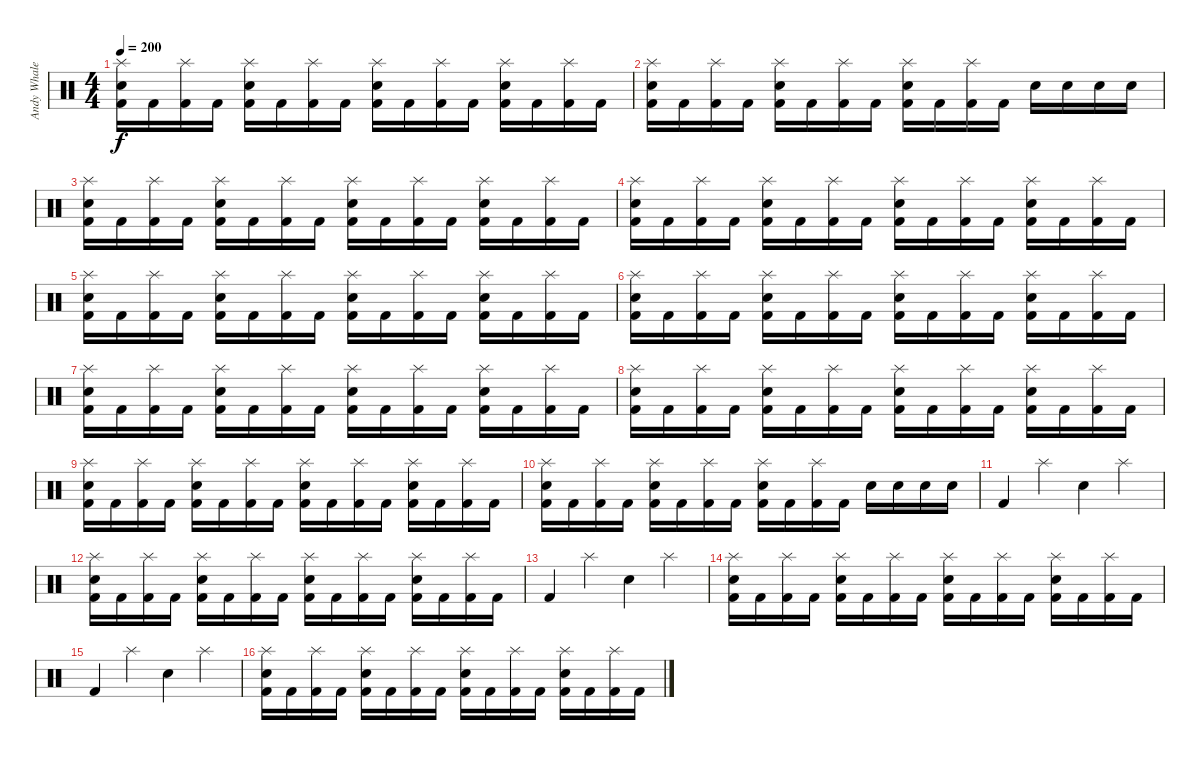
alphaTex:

\track ("Andy Whale" "Andy Whale") {instrument percussion}
\staff {score}
\articulation defaults
\ts (4 4)
\tempo 200
\clef neutral
\ks c
("Splash (hit)" "Electric Snare (hit)" "Kick (hit) 2").16{dy f} "Kick (hit) 2".16 ("Splash (hit)" "Kick (hit) 2").16 "Kick (hit) 2".16 ("Splash (hit)" "Electric Snare (hit)" "Kick (hit) 2").16 "Kick (hit) 2".16 ("Splash (hit)" "Kick (hit) 2").16 "Kick (hit) 2".16 ("Splash (hit)" "Electric Snare (hit)" "Kick (hit) 2").16 "Kick (hit) 2".16 ("Splash (hit)" "Kick (hit) 2").16 "Kick (hit) 2".16 ("Splash (hit)" "Electric Snare (hit)" "Kick (hit) 2").16 "Kick (hit) 2".16 ("Splash (hit)" "Kick (hit) 2").16 "Kick (hit) 2".16 |
("Splash (hit)" "Electric Snare (hit)" "Kick (hit) 2").16 "Kick (hit) 2".16 ("Splash (hit)" "Kick (hit) 2").16 "Kick (hit) 2".16 ("Splash (hit)" "Electric Snare (hit)" "Kick (hit) 2").16 "Kick (hit) 2".16 ("Splash (hit)" "Kick (hit) 2").16 "Kick (hit) 2".16 ("Splash (hit)" "Electric Snare (hit)" "Kick (hit) 2").16 "Kick (hit) 2".16 ("Splash (hit)" "Kick (hit) 2").16 "Kick (hit) 2".16 "Electric Snare (hit)".16 "Electric Snare (hit)".16 "Electric Snare (hit)".16 "Electric Snare (hit)".16 |
("Splash (hit)" "Electric Snare (hit)" "Kick (hit) 2").16 "Kick (hit) 2".16 ("Splash (hit)" "Kick (hit) 2").16 "Kick (hit) 2".16 ("Splash (hit)" "Electric Snare (hit)" "Kick (hit) 2").16 "Kick (hit) 2".16 ("Splash (hit)" "Kick (hit) 2").16 "Kick (hit) 2".16 ("Splash (hit)" "Electric Snare (hit)" "Kick (hit) 2").16 "Kick (hit) 2".16 ("Splash (hit)" "Kick (hit) 2").16 "Kick (hit) 2".16 ("Splash (hit)" "Electric Snare (hit)" "Kick (hit) 2").16 "Kick (hit) 2".16 ("Splash (hit)" "Kick (hit) 2").16 "Kick (hit) 2".16 |
("Splash (hit)" "Electric Snare (hit)" "Kick (hit) 2").16 "Kick (hit) 2".16 ("Splash (hit)" "Kick (hit) 2").16 "Kick (hit) 2".16 ("Splash (hit)" "Electric Snare (hit)" "Kick (hit) 2").16 "Kick (hit) 2".16 ("Splash (hit)" "Kick (hit) 2").16 "Kick (hit) 2".16 ("Splash (hit)" "Electric Snare (hit)" "Kick (hit) 2").16 "Kick (hit) 2".16 ("Splash (hit)" "Kick (hit) 2").16 "Kick (hit) 2".16 ("Splash (hit)" "Electric Snare (hit)" "Kick (hit) 2").16 "Kick (hit) 2".16 ("Splash (hit)" "Kick (hit) 2").16 "Kick (hit) 2".16 |
("Splash (hit)" "Electric Snare (hit)" "Kick (hit) 2").16 "Kick (hit) 2".16 ("Splash (hit)" "Kick (hit) 2").16 "Kick (hit) 2".16 ("Splash (hit)" "Electric Snare (hit)" "Kick (hit) 2").16 "Kick (hit) 2".16 ("Splash (hit)" "Kick (hit) 2").16 "Kick (hit) 2".16 ("Splash (hit)" "Electric Snare (hit)" "Kick (hit) 2").16 "Kick (hit) 2".16 ("Splash (hit)" "Kick (hit) 2").16 "Kick (hit) 2".16 ("Splash (hit)" "Electric Snare (hit)" "Kick (hit) 2").16 "Kick (hit) 2".16 ("Splash (hit)" "Kick (hit) 2").16 "Kick (hit) 2".16 |
("Splash (hit)" "Electric Snare (hit)" "Kick (hit) 2").16 "Kick (hit) 2".16 ("Splash (hit)" "Kick (hit) 2").16 "Kick (hit) 2".16 ("Splash (hit)" "Electric Snare (hit)" "Kick (hit) 2").16 "Kick (hit) 2".16 ("Splash (hit)" "Kick (hit) 2").16 "Kick (hit) 2".16 ("Splash (hit)" "Electric Snare (hit)" "Kick (hit) 2").16 "Kick (hit) 2".16 ("Splash (hit)" "Kick (hit) 2").16 "Kick (hit) 2".16 ("Splash (hit)" "Electric Snare (hit)" "Kick (hit) 2").16 "Kick (hit) 2".16 ("Splash (hit)" "Kick (hit) 2").16 "Kick (hit) 2".16 |
("Splash (hit)" "Electric Snare (hit)" "Kick (hit) 2").16 "Kick (hit) 2".16 ("Splash (hit)" "Kick (hit) 2").16 "Kick (hit) 2".16 ("Splash (hit)" "Electric Snare (hit)" "Kick (hit) 2").16 "Kick (hit) 2".16 ("Splash (hit)" "Kick (hit) 2").16 "Kick (hit) 2".16 ("Splash (hit)" "Electric Snare (hit)" "Kick (hit) 2").16 "Kick (hit) 2".16 ("Splash (hit)" "Kick (hit) 2").16 "Kick (hit) 2".16 ("Splash (hit)" "Electric Snare (hit)" "Kick (hit) 2").16 "Kick (hit) 2".16 ("Splash (hit)" "Kick (hit) 2").16 "Kick (hit) 2".16 |
("Splash (hit)" "Electric Snare (hit)" "Kick (hit) 2").16 "Kick (hit) 2".16 ("Splash (hit)" "Kick (hit) 2").16 "Kick (hit) 2".16 ("Splash (hit)" "Electric Snare (hit)" "Kick (hit) 2").16 "Kick (hit) 2".16 ("Splash (hit)" "Kick (hit) 2").16 "Kick (hit) 2".16 ("Splash (hit)" "Electric Snare (hit)" "Kick (hit) 2").16 "Kick (hit) 2".16 ("Splash (hit)" "Kick (hit) 2").16 "Kick (hit) 2".16 ("Splash (hit)" "Electric Snare (hit)" "Kick (hit) 2").16 "Kick (hit) 2".16 ("Splash (hit)" "Kick (hit) 2").16 "Kick (hit) 2".16 |
("Splash (hit)" "Electric Snare (hit)" "Kick (hit) 2").16 "Kick (hit) 2".16 ("Splash (hit)" "Kick (hit) 2").16 "Kick (hit) 2".16 ("Splash (hit)" "Electric Snare (hit)" "Kick (hit) 2").16 "Kick (hit) 2".16 ("Splash (hit)" "Kick (hit) 2").16 "Kick (hit) 2".16 ("Splash (hit)" "Electric Snare (hit)" "Kick (hit) 2").16 "Kick (hit) 2".16 ("Splash (hit)" "Kick (hit) 2").16 "Kick (hit) 2".16 ("Splash (hit)" "Electric Snare (hit)" "Kick (hit) 2").16 "Kick (hit) 2".16 ("Splash (hit)" "Kick (hit) 2").16 "Kick (hit) 2".16 |
("Splash (hit)" "Electric Snare (hit)" "Kick (hit) 2").16 "Kick (hit) 2".16 ("Splash (hit)" "Kick (hit) 2").16 "Kick (hit) 2".16 ("Splash (hit)" "Electric Snare (hit)" "Kick (hit) 2").16 "Kick (hit) 2".16 ("Splash (hit)" "Kick (hit) 2").16 "Kick (hit) 2".16 ("Splash (hit)" "Electric Snare (hit)" "Kick (hit) 2").16 "Kick (hit) 2".16 ("Splash (hit)" "Kick (hit) 2").16 "Kick (hit) 2".16 "Electric Snare (hit)".16 "Electric Snare (hit)".16 "Electric Snare (hit)".16 "Electric Snare (hit)".16 |
"Kick (hit) 2".4 "Splash (hit)".4 "Electric Snare (hit)".4 "Splash (hit)".4 |
("Splash (hit)" "Electric Snare (hit)" "Kick (hit) 2").16 "Kick (hit) 2".16 ("Splash (hit)" "Kick (hit) 2").16 "Kick (hit) 2".16 ("Splash (hit)" "Electric Snare (hit)" "Kick (hit) 2").16 "Kick (hit) 2".16 ("Splash (hit)" "Kick (hit) 2").16 "Kick (hit) 2".16 ("Splash (hit)" "Electric Snare (hit)" "Kick (hit) 2").16 "Kick (hit) 2".16 ("Splash (hit)" "Kick (hit) 2").16 "Kick (hit) 2".16 ("Splash (hit)" "Electric Snare (hit)" "Kick (hit) 2").16 "Kick (hit) 2".16 ("Splash (hit)" "Kick (hit) 2").16 "Kick (hit) 2".16 |
"Kick (hit) 2".4 "Splash (hit)".4 "Electric Snare (hit)".4 "Splash (hit)".4 |
("Splash (hit)" "Electric Snare (hit)" "Kick (hit) 2").16 "Kick (hit) 2".16 ("Splash (hit)" "Kick (hit) 2").16 "Kick (hit) 2".16 ("Splash (hit)" "Electric Snare (hit)" "Kick (hit) 2").16 "Kick (hit) 2".16 ("Splash (hit)" "Kick (hit) 2").16 "Kick (hit) 2".16 ("Splash (hit)" "Electric Snare (hit)" "Kick (hit) 2").16 "Kick (hit) 2".16 ("Splash (hit)" "Kick (hit) 2").16 "Kick (hit) 2".16 ("Splash (hit)" "Electric Snare (hit)" "Kick (hit) 2").16 "Kick (hit) 2".16 ("Splash (hit)" "Kick (hit) 2").16 "Kick (hit) 2".16 |
"Kick (hit) 2".4 "Splash (hit)".4 "Electric Snare (hit)".4 "Splash (hit)".4 |
("Splash (hit)" "Electric Snare (hit)" "Kick (hit) 2").16 "Kick (hit) 2".16 ("Splash (hit)" "Kick (hit) 2").16 "Kick (hit) 2".16 ("Splash (hit)" "Electric Snare (hit)" "Kick (hit) 2").16 "Kick (hit) 2".16 ("Splash (hit)" "Kick (hit) 2").16 "Kick (hit) 2".16 ("Splash (hit)" "Electric Snare (hit)" "Kick (hit) 2").16 "Kick (hit) 2".16 ("Splash (hit)" "Kick (hit) 2").16 "Kick (hit) 2".16 ("Splash (hit)" "Electric Snare (hit)" "Kick (hit) 2").16 "Kick (hit) 2".16 ("Splash (hit)" "Kick (hit) 2").16 "Kick (hit) 2".16
